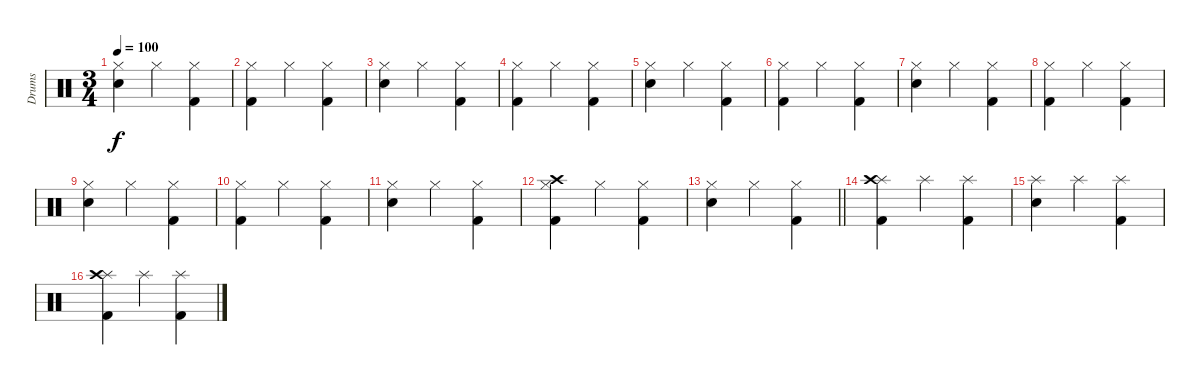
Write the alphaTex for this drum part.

\track ("Drums" "Drums") {instrument percussion}
\staff {score}
\articulation defaults
\ts (3 4)
\tempo 100
\clef neutral
\ks c
("Hi-Hat (closed)" "Electric Snare (hit)").4{dy f} "Hi-Hat (closed)".4 ("Hi-Hat (closed)" "Kick (hit) 2").4 |
("Hi-Hat (closed)" "Kick (hit) 2").4 "Hi-Hat (closed)".4 ("Hi-Hat (closed)" "Kick (hit) 2").4 |
("Hi-Hat (closed)" "Electric Snare (hit)").4 "Hi-Hat (closed)".4 ("Hi-Hat (closed)" "Kick (hit) 2").4 |
("Hi-Hat (closed)" "Kick (hit) 2").4 "Hi-Hat (closed)".4 ("Hi-Hat (closed)" "Kick (hit) 2").4 |
("Hi-Hat (closed)" "Electric Snare (hit)").4 "Hi-Hat (closed)".4 ("Hi-Hat (closed)" "Kick (hit) 2").4 |
("Hi-Hat (closed)" "Kick (hit) 2").4 "Hi-Hat (closed)".4 ("Hi-Hat (closed)" "Kick (hit) 2").4 |
("Hi-Hat (closed)" "Electric Snare (hit)").4 "Hi-Hat (closed)".4 ("Hi-Hat (closed)" "Kick (hit) 2").4 |
("Hi-Hat (closed)" "Kick (hit) 2").4 "Hi-Hat (closed)".4 ("Hi-Hat (closed)" "Kick (hit) 2").4 |
("Hi-Hat (closed)" "Electric Snare (hit)").4 "Hi-Hat (closed)".4 ("Hi-Hat (closed)" "Kick (hit) 2").4 |
("Hi-Hat (closed)" "Kick (hit) 2").4 "Hi-Hat (closed)".4 ("Hi-Hat (closed)" "Kick (hit) 2").4 |
("Hi-Hat (closed)" "Electric Snare (hit)").4 "Hi-Hat (closed)".4 ("Hi-Hat (closed)" "Kick (hit) 2").4 |
("Hi-Hat (closed)" "Crash high (hit)" "Kick (hit) 2").4 "Hi-Hat (closed)".4 ("Hi-Hat (closed)" "Kick (hit) 2").4 |
\barLineRight lightlight
("Hi-Hat (closed)" "Electric Snare (hit)").4 "Hi-Hat (closed)".4 ("Hi-Hat (closed)" "Kick (hit) 2").4 |
("Splash (hit)" "Crash high (hit)" "Kick (hit) 2").4 "Splash (hit)".4 ("Splash (hit)" "Kick (hit) 2").4 |
("Splash (hit)" "Electric Snare (hit)").4 "Splash (hit)".4 ("Splash (hit)" "Kick (hit) 2").4 |
("Splash (hit)" "Crash high (hit)" "Kick (hit) 2").4 "Splash (hit)".4 ("Splash (hit)" "Kick (hit) 2").4
